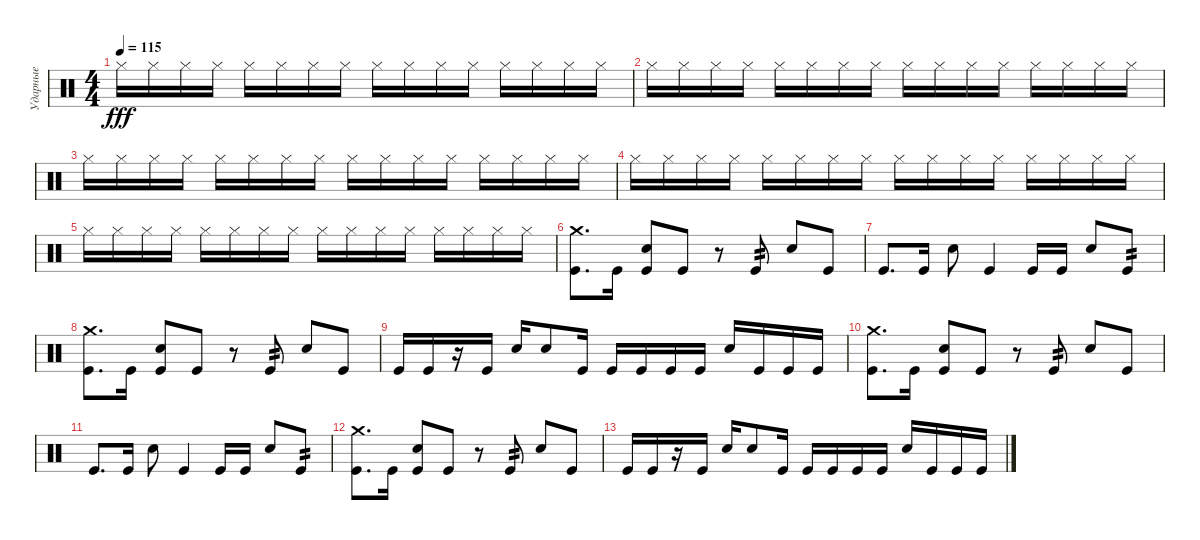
\track ("Ударные" "Ударные") {instrument percussion}
\staff {score}
\articulation defaults
\ts (4 4)
\tempo 115
\clef neutral
\ks c "Hi-Hat (closed)".16{dy fff} "Hi-Hat (closed)".16 "Hi-Hat (closed)".16 "Hi-Hat (closed)".16 "Hi-Hat (closed)".16 "Hi-Hat (closed)".16 "Hi-Hat (closed)".16 "Hi-Hat (closed)".16 "Hi-Hat (closed)".16 "Hi-Hat (closed)".16 "Hi-Hat (closed)".16 "Hi-Hat (closed)".16 "Hi-Hat (closed)".16 "Hi-Hat (closed)".16 "Hi-Hat (closed)".16 "Hi-Hat (closed)".16
|
"Hi-Hat (closed)".16 "Hi-Hat (closed)".16 "Hi-Hat (closed)".16 "Hi-Hat (closed)".16 "Hi-Hat (closed)".16 "Hi-Hat (closed)".16 "Hi-Hat (closed)".16 "Hi-Hat (closed)".16 "Hi-Hat (closed)".16 "Hi-Hat (closed)".16 "Hi-Hat (closed)".16 "Hi-Hat (closed)".16 "Hi-Hat (closed)".16 "Hi-Hat (closed)".16 "Hi-Hat (closed)".16 "Hi-Hat (closed)".16 |
"Hi-Hat (closed)".16 "Hi-Hat (closed)".16 "Hi-Hat (closed)".16 "Hi-Hat (closed)".16 "Hi-Hat (closed)".16 "Hi-Hat (closed)".16 "Hi-Hat (closed)".16 "Hi-Hat (closed)".16 "Hi-Hat (closed)".16 "Hi-Hat (closed)".16 "Hi-Hat (closed)".16 "Hi-Hat (closed)".16 "Hi-Hat (closed)".16 "Hi-Hat (closed)".16 "Hi-Hat (closed)".16 "Hi-Hat (closed)".16 |
"Hi-Hat (closed)".16 "Hi-Hat (closed)".16 "Hi-Hat (closed)".16 "Hi-Hat (closed)".16 "Hi-Hat (closed)".16 "Hi-Hat (closed)".16 "Hi-Hat (closed)".16 "Hi-Hat (closed)".16 "Hi-Hat (closed)".16 "Hi-Hat (closed)".16 "Hi-Hat (closed)".16 "Hi-Hat (closed)".16 "Hi-Hat (closed)".16 "Hi-Hat (closed)".16 "Hi-Hat (closed)".16 "Hi-Hat (closed)".16 |
"Hi-Hat (closed)".16 "Hi-Hat (closed)".16 "Hi-Hat (closed)".16 "Hi-Hat (closed)".16 "Hi-Hat (closed)".16 "Hi-Hat (closed)".16 "Hi-Hat (closed)".16 "Hi-Hat (closed)".16 "Hi-Hat (closed)".16 "Hi-Hat (closed)".16 "Hi-Hat (closed)".16 "Hi-Hat (closed)".16 "Hi-Hat (closed)".16 "Hi-Hat (closed)".16 "Hi-Hat (closed)".16 "Hi-Hat (closed)".16 |
("Crash medium (hit)" "Kick (hit)").8{d} "Kick (hit)".16 ("Electric Snare (hit)" "Kick (hit)").8 "Kick (hit)".8 r.8 "Kick (hit)".8{tp 2} "Electric Snare (hit)".8 "Kick (hit)".8 |
"Kick (hit)".8{d} "Kick (hit)".16 "Electric Snare (hit)".8 "Kick (hit)".4 "Kick (hit)".16 "Kick (hit)".16 "Electric Snare (hit)".8 "Kick (hit)".8{tp 2} |
("Crash medium (hit)" "Kick (hit)").8{d} "Kick (hit)".16 ("Electric Snare (hit)" "Kick (hit)").8 "Kick (hit)".8 r.8 "Kick (hit)".8{tp 2} "Electric Snare (hit)".8 "Kick (hit)".8 |
"Kick (hit)".16 "Kick (hit)".16 r.16 "Kick (hit)".16 "Electric Snare (hit)".16 "Electric Snare (hit)".8 "Kick (hit)".16 "Kick (hit)".16 "Kick (hit)".16 "Kick (hit)".16 "Kick (hit)".16 "Electric Snare (hit)".16 "Kick (hit)".16 "Kick (hit)".16 "Kick (hit)".16 |
("Crash medium (hit)" "Kick (hit)").8{d} "Kick (hit)".16 ("Electric Snare (hit)" "Kick (hit)").8 "Kick (hit)".8 r.8 "Kick (hit)".8{tp 2} "Electric Snare (hit)".8 "Kick (hit)".8 |
"Kick (hit)".8{d} "Kick (hit)".16 "Electric Snare (hit)".8 "Kick (hit)".4 "Kick (hit)".16 "Kick (hit)".16 "Electric Snare (hit)".8 "Kick (hit)".8{tp 2} |
("Crash medium (hit)" "Kick (hit)").8{d} "Kick (hit)".16 ("Electric Snare (hit)" "Kick (hit)").8 "Kick (hit)".8 r.8 "Kick (hit)".8{tp 2} "Electric Snare (hit)".8 "Kick (hit)".8 |
"Kick (hit)".16 "Kick (hit)".16 r.16 "Kick (hit)".16 "Electric Snare (hit)".16 "Electric Snare (hit)".8 "Kick (hit)".16 "Kick (hit)".16 "Kick (hit)".16 "Kick (hit)".16 "Kick (hit)".16 "Electric Snare (hit)".16 "Kick (hit)".16 "Kick (hit)".16 "Kick (hit)".16
